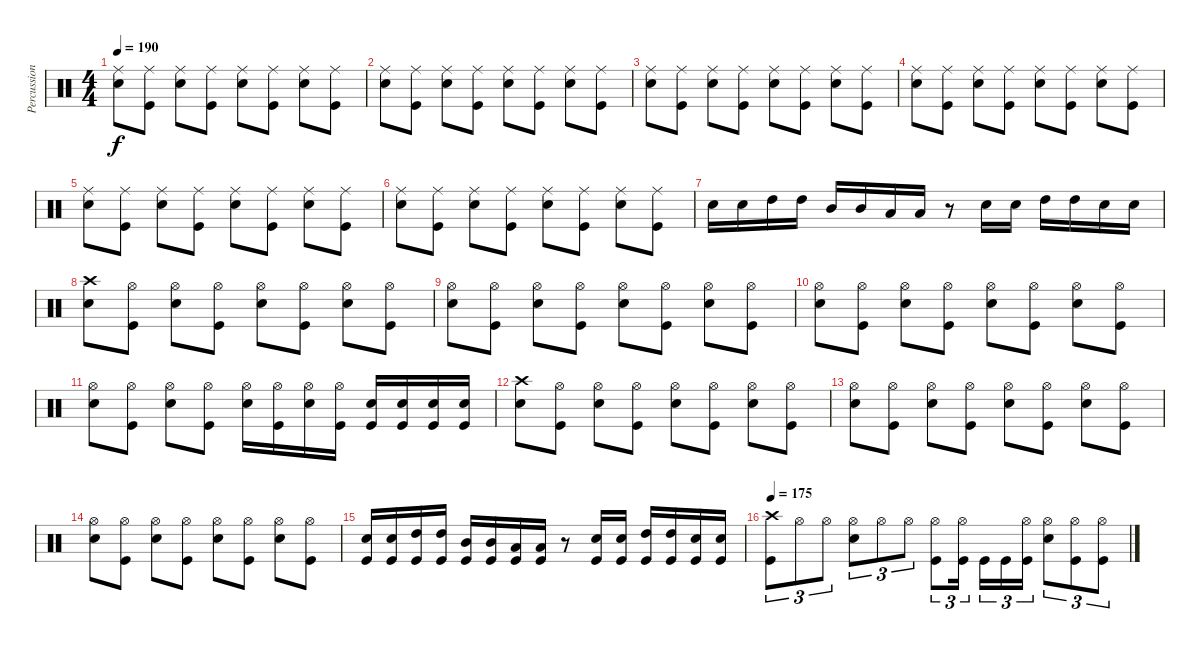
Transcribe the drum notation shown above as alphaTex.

\track ("Percussioni" "Percussion") {instrument percussion}
\staff {score}
\articulation defaults
\ts (4 4)
\tempo 190
\clef neutral
\ks c
("Ride (middle)" "Electric Snare (hit)").8{dy f} ("Ride (middle)" "Kick (hit)").8 ("Ride (middle)" "Electric Snare (hit)").8 ("Ride (middle)" "Kick (hit)").8 ("Ride (middle)" "Electric Snare (hit)").8 ("Ride (middle)" "Kick (hit)").8 ("Ride (middle)" "Electric Snare (hit)").8 ("Ride (middle)" "Kick (hit)").8 |
("Ride (middle)" "Electric Snare (hit)").8 ("Ride (middle)" "Kick (hit)").8 ("Ride (middle)" "Electric Snare (hit)").8 ("Ride (middle)" "Kick (hit)").8 ("Ride (middle)" "Electric Snare (hit)").8 ("Ride (middle)" "Kick (hit)").8 ("Ride (middle)" "Electric Snare (hit)").8 ("Ride (middle)" "Kick (hit)").8 |
("Ride (middle)" "Electric Snare (hit)").8 ("Ride (middle)" "Kick (hit)").8 ("Ride (middle)" "Electric Snare (hit)").8 ("Ride (middle)" "Kick (hit)").8 ("Ride (middle)" "Electric Snare (hit)").8 ("Ride (middle)" "Kick (hit)").8 ("Ride (middle)" "Electric Snare (hit)").8 ("Ride (middle)" "Kick (hit)").8 |
("Ride (middle)" "Electric Snare (hit)").8 ("Ride (middle)" "Kick (hit)").8 ("Ride (middle)" "Electric Snare (hit)").8 ("Ride (middle)" "Kick (hit)").8 ("Ride (middle)" "Electric Snare (hit)").8 ("Ride (middle)" "Kick (hit)").8 ("Ride (middle)" "Electric Snare (hit)").8 ("Ride (middle)" "Kick (hit)").8 |
("Ride (middle)" "Electric Snare (hit)").8 ("Ride (middle)" "Kick (hit)").8 ("Ride (middle)" "Electric Snare (hit)").8 ("Ride (middle)" "Kick (hit)").8 ("Ride (middle)" "Electric Snare (hit)").8 ("Ride (middle)" "Kick (hit)").8 ("Ride (middle)" "Electric Snare (hit)").8 ("Ride (middle)" "Kick (hit)").8 |
("Ride (middle)" "Electric Snare (hit)").8 ("Ride (middle)" "Kick (hit)").8 ("Ride (middle)" "Electric Snare (hit)").8 ("Ride (middle)" "Kick (hit)").8 ("Ride (middle)" "Electric Snare (hit)").8 ("Ride (middle)" "Kick (hit)").8 ("Ride (middle)" "Electric Snare (hit)").8 ("Ride (middle)" "Kick (hit)").8 |
"Electric Snare (hit)".16 "Electric Snare (hit)".16 "High Tom (hit)".16 "High Tom (hit)".16 "Mid Tom (hit)".16 "Mid Tom (hit)".16 "Low Tom (hit)".16 "Low Tom (hit)".16 r.8 "Electric Snare (hit)".16 "Electric Snare (hit)".16 "High Tom (hit)".16 "High Tom (hit)".16 "Snare (hit) 2".16 "Snare (hit) 2".16 |
("Crash high (hit)" "Electric Snare (hit)").8 ("Hi-Hat (open)" "Kick (hit)").8 ("Hi-Hat (open)" "Electric Snare (hit)").8 ("Hi-Hat (open)" "Kick (hit)").8 ("Hi-Hat (open)" "Electric Snare (hit)").8 ("Hi-Hat (open)" "Kick (hit)").8 ("Hi-Hat (open)" "Electric Snare (hit)").8 ("Hi-Hat (open)" "Kick (hit)").8 |
("Hi-Hat (open)" "Electric Snare (hit)").8 ("Hi-Hat (open)" "Kick (hit)").8 ("Hi-Hat (open)" "Electric Snare (hit)").8 ("Hi-Hat (open)" "Kick (hit)").8 ("Hi-Hat (open)" "Electric Snare (hit)").8 ("Hi-Hat (open)" "Kick (hit)").8 ("Hi-Hat (open)" "Electric Snare (hit)").8 ("Hi-Hat (open)" "Kick (hit)").8 |
("Hi-Hat (open)" "Electric Snare (hit)").8 ("Hi-Hat (open)" "Kick (hit)").8 ("Hi-Hat (open)" "Electric Snare (hit)").8 ("Hi-Hat (open)" "Kick (hit)").8 ("Hi-Hat (open)" "Electric Snare (hit)").8 ("Hi-Hat (open)" "Kick (hit)").8 ("Hi-Hat (open)" "Electric Snare (hit)").8 ("Hi-Hat (open)" "Kick (hit)").8 |
("Hi-Hat (open)" "Electric Snare (hit)").8 ("Hi-Hat (open)" "Kick (hit)").8 ("Hi-Hat (open)" "Electric Snare (hit)").8 ("Hi-Hat (open)" "Kick (hit)").8 ("Hi-Hat (open)" "Electric Snare (hit)").16 ("Hi-Hat (open)" "Kick (hit)").16 ("Hi-Hat (open)" "Electric Snare (hit)").16 ("Hi-Hat (open)" "Kick (hit)").16 ("Electric Snare (hit)" "Kick (hit)").16 ("Electric Snare (hit)" "Kick (hit)").16 ("Electric Snare (hit)" "Kick (hit)").16 ("Electric Snare (hit)" "Kick (hit)").16 |
("Crash high (hit)" "Electric Snare (hit)").8 ("Hi-Hat (open)" "Kick (hit)").8 ("Hi-Hat (open)" "Electric Snare (hit)").8 ("Hi-Hat (open)" "Kick (hit)").8 ("Hi-Hat (open)" "Electric Snare (hit)").8 ("Hi-Hat (open)" "Kick (hit)").8 ("Hi-Hat (open)" "Electric Snare (hit)").8 ("Hi-Hat (open)" "Kick (hit)").8 |
("Hi-Hat (open)" "Electric Snare (hit)").8 ("Hi-Hat (open)" "Kick (hit)").8 ("Hi-Hat (open)" "Electric Snare (hit)").8 ("Hi-Hat (open)" "Kick (hit)").8 ("Hi-Hat (open)" "Electric Snare (hit)").8 ("Hi-Hat (open)" "Kick (hit)").8 ("Hi-Hat (open)" "Electric Snare (hit)").8 ("Hi-Hat (open)" "Kick (hit)").8 |
("Hi-Hat (open)" "Electric Snare (hit)").8 ("Hi-Hat (open)" "Kick (hit)").8 ("Hi-Hat (open)" "Electric Snare (hit)").8 ("Hi-Hat (open)" "Kick (hit)").8 ("Hi-Hat (open)" "Electric Snare (hit)").8 ("Hi-Hat (open)" "Kick (hit)").8 ("Hi-Hat (open)" "Electric Snare (hit)").8 ("Hi-Hat (open)" "Kick (hit)").8 |
("Electric Snare (hit)" "Kick (hit)").16 ("Electric Snare (hit)" "Kick (hit)").16 ("High Tom (hit)" "Kick (hit)").16 ("High Tom (hit)" "Kick (hit)").16 ("Mid Tom (hit)" "Kick (hit)").16 ("Mid Tom (hit)" "Kick (hit)").16 ("Low Tom (hit)" "Kick (hit)").16 ("Low Tom (hit)" "Kick (hit)").16 r.8 ("Electric Snare (hit)" "Kick (hit)").16 ("Electric Snare (hit)" "Kick (hit)").16 ("High Tom (hit)" "Kick (hit)").16 ("High Tom (hit)" "Kick (hit)").16 ("Snare (hit) 2" "Kick (hit)").16 ("Snare (hit) 2" "Kick (hit)").16 |
\tempo 175
("Crash high (hit)" "Kick (hit)").8{tu (3 2)} "Hi-Hat (open)".8{tu (3 2)} "Hi-Hat (open)".8{tu (3 2)} ("Hi-Hat (open)" "Electric Snare (hit)").8{tu (3 2)} "Hi-Hat (open)".8{tu (3 2)} "Hi-Hat (open)".8{tu (3 2)} ("Hi-Hat (open)" "Kick (hit)").8{tu (3 2)} ("Hi-Hat (open)" "Kick (hit)").16{tu (3 2)} "Kick (hit)".16{tu (3 2)} "Kick (hit)".16{tu (3 2)} ("Hi-Hat (open)" "Kick (hit)").16{tu (3 2)} ("Hi-Hat (open)" "Electric Snare (hit)").8{tu (3 2)} ("Hi-Hat (open)" "Kick (hit)").8{tu (3 2)} ("Hi-Hat (open)" "Kick (hit)").8{tu (3 2)}
